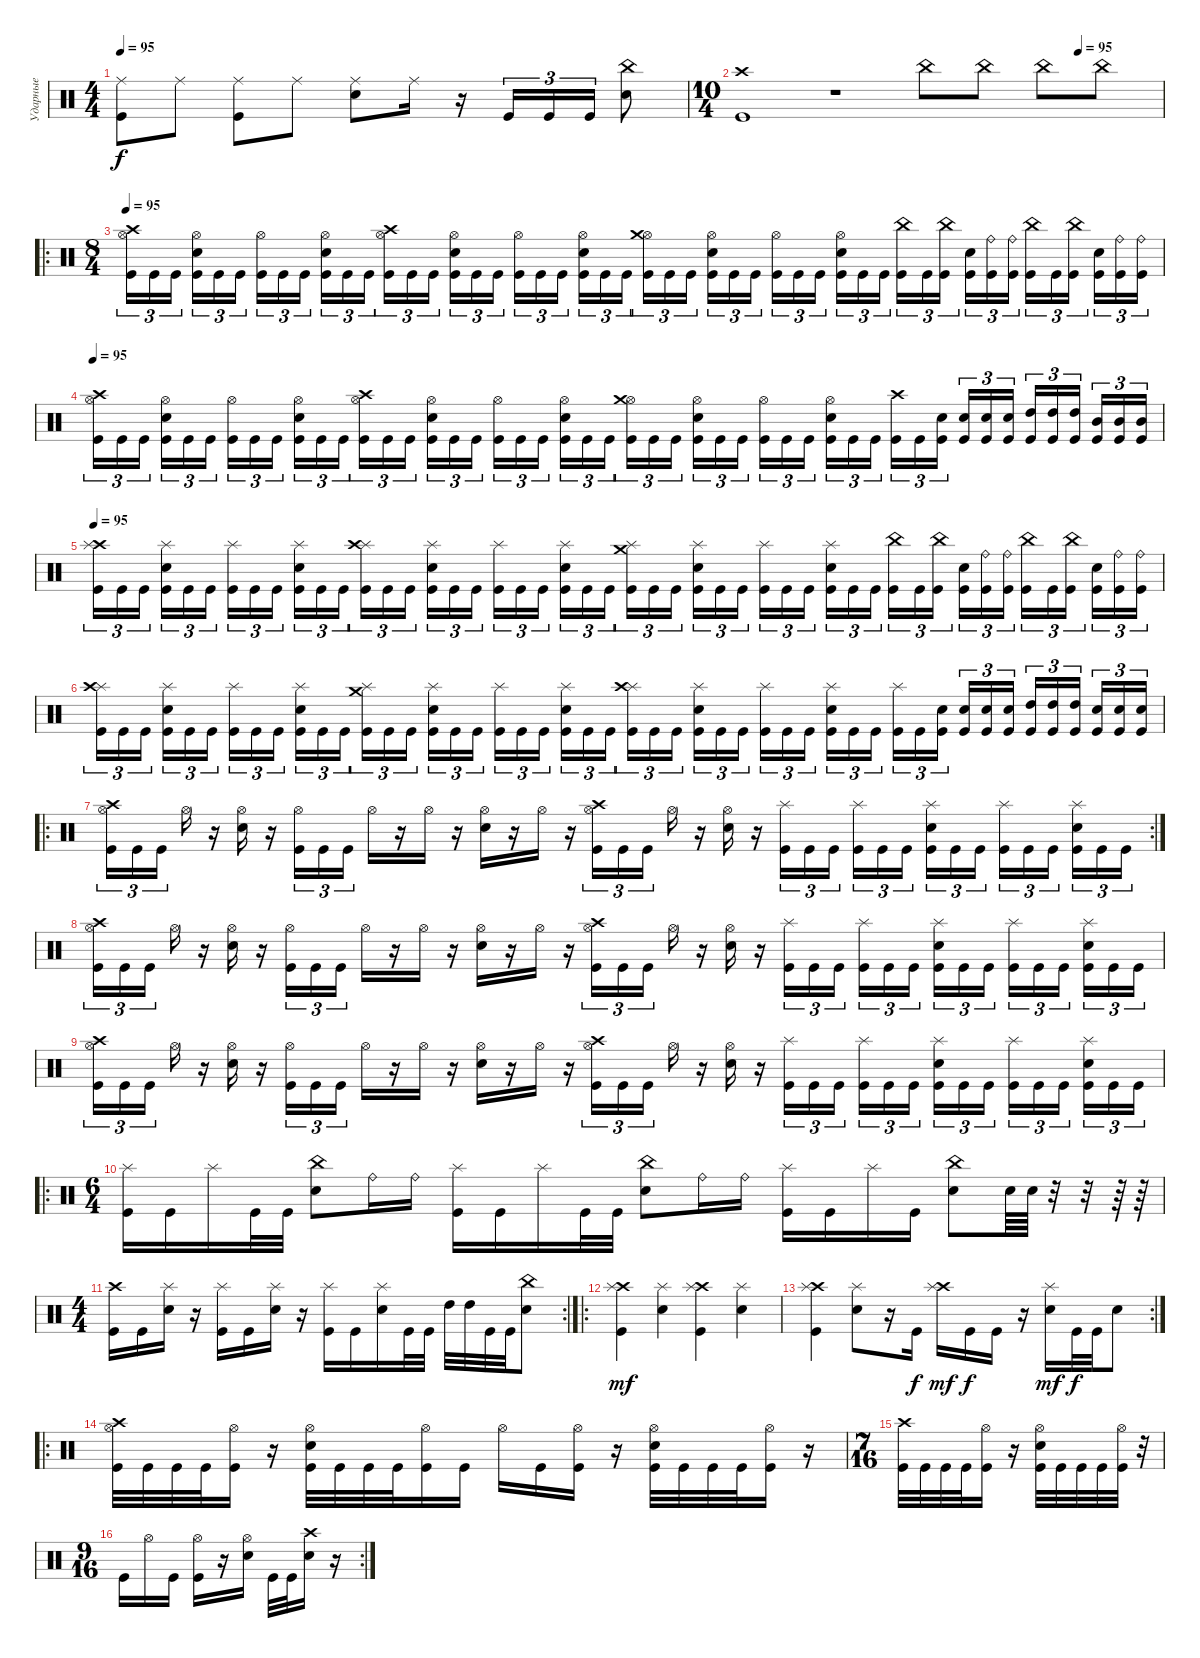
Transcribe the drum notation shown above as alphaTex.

\track ("Ударные" "Ударные") {instrument percussion}
\staff {score}
\articulation defaults
\ts (4 4)
\tempo 95
\clef neutral
\ks c
("Ride (middle)" "Kick (hit)").8{dy f} "Ride (middle)".8 ("Ride (middle)" "Kick (hit)").8 "Ride (middle)".8 ("Ride (middle)" "Electric Snare (hit)").8 "Ride (middle)".16 r.16 "Kick (hit)".16{tu (3 2)} "Kick (hit)".16{tu (3 2)} "Kick (hit)".16{tu (3 2)} ("China (hit)" "Electric Snare (hit)").8 |
\ts (10 4)
\tempo (95 0.8)
("Crash high (hit)" "Kick (hit)").1 r.1 "China (hit)".8 "China (hit)".8 "China (hit)".8 "China (hit)".8 |
\ro
\ts (8 4)
\tempo 100
\tempo 95
("Kick (hit)" "Crash high (hit)" "Hi-Hat (open)").16{tu (3 2)} "Kick (hit)".16{tu (3 2)} "Kick (hit)".16{tu (3 2)} ("Kick (hit)" "Electric Snare (hit)" "Hi-Hat (open)").16{tu (3 2)} "Kick (hit)".16{tu (3 2)} "Kick (hit)".16{tu (3 2)} ("Kick (hit)" "Hi-Hat (open)").16{tu (3 2)} "Kick (hit)".16{tu (3 2)} "Kick (hit)".16{tu (3 2)} ("Kick (hit)" "Electric Snare (hit)" "Hi-Hat (open)").16{tu (3 2)} "Kick (hit)".16{tu (3 2)} "Kick (hit)".16{tu (3 2)} ("Kick (hit)" "Hi-Hat (open)" "Crash high (hit)").16{tu (3 2)} "Kick (hit)".16{tu (3 2)} "Kick (hit)".16{tu (3 2)} ("Kick (hit)" "Electric Snare (hit)" "Hi-Hat (open)").16{tu (3 2)} "Kick (hit)".16{tu (3 2)} "Kick (hit)".16{tu (3 2)} ("Kick (hit)" "Hi-Hat (open)").16{tu (3 2)} "Kick (hit)".16{tu (3 2)} "Kick (hit)".16{tu (3 2)} ("Kick (hit)" "Electric Snare (hit)" "Hi-Hat (open)").16{tu (3 2)} "Kick (hit)".16{tu (3 2)} "Kick (hit)".16{tu (3 2)} ("Kick (hit)" "Hi-Hat (open)" "Crash medium (hit)").16{tu (3 2)} "Kick (hit)".16{tu (3 2)} "Kick (hit)".16{tu (3 2)} ("Kick (hit)" "Electric Snare (hit)" "Hi-Hat (open)").16{tu (3 2)} "Kick (hit)".16{tu (3 2)} "Kick (hit)".16{tu (3 2)} ("Kick (hit)" "Hi-Hat (open)").16{tu (3 2)} "Kick (hit)".16{tu (3 2)} "Kick (hit)".16{tu (3 2)} ("Kick (hit)" "Electric Snare (hit)" "Hi-Hat (open)").16{tu (3 2)} "Kick (hit)".16{tu (3 2)} "Kick (hit)".16{tu (3 2)} ("Kick (hit)" "China (hit)").16{tu (3 2)} "Kick (hit)".16{tu (3 2)} ("Kick (hit)" "China (hit)").16{tu (3 2)} ("Kick (hit)" "Electric Snare (hit)").16{tu (3 2)} ("Kick (hit)" "Ride (bell)").16{tu (3 2)} ("Kick (hit)" "Ride (bell)").16{tu (3 2)} ("Kick (hit)" "China (hit)").16{tu (3 2)} "Kick (hit)".16{tu (3 2)} ("Kick (hit)" "China (hit)").16{tu (3 2)} ("Kick (hit)" "Electric Snare (hit)").16{tu (3 2)} ("Kick (hit)" "Ride (bell)").16{tu (3 2)} ("Kick (hit)" "Ride (bell)").16{tu (3 2)} |
\tempo 100
\tempo 95
("Kick (hit)" "Crash high (hit)" "Hi-Hat (open)").16{tu (3 2)} "Kick (hit)".16{tu (3 2)} "Kick (hit)".16{tu (3 2)} ("Kick (hit)" "Electric Snare (hit)" "Hi-Hat (open)").16{tu (3 2)} "Kick (hit)".16{tu (3 2)} "Kick (hit)".16{tu (3 2)} ("Kick (hit)" "Hi-Hat (open)").16{tu (3 2)} "Kick (hit)".16{tu (3 2)} "Kick (hit)".16{tu (3 2)} ("Kick (hit)" "Electric Snare (hit)" "Hi-Hat (open)").16{tu (3 2)} "Kick (hit)".16{tu (3 2)} "Kick (hit)".16{tu (3 2)} ("Kick (hit)" "Hi-Hat (open)" "Crash high (hit)").16{tu (3 2)} "Kick (hit)".16{tu (3 2)} "Kick (hit)".16{tu (3 2)} ("Kick (hit)" "Electric Snare (hit)" "Hi-Hat (open)").16{tu (3 2)} "Kick (hit)".16{tu (3 2)} "Kick (hit)".16{tu (3 2)} ("Kick (hit)" "Hi-Hat (open)").16{tu (3 2)} "Kick (hit)".16{tu (3 2)} "Kick (hit)".16{tu (3 2)} ("Kick (hit)" "Electric Snare (hit)" "Hi-Hat (open)").16{tu (3 2)} "Kick (hit)".16{tu (3 2)} "Kick (hit)".16{tu (3 2)} ("Kick (hit)" "Hi-Hat (open)" "Crash medium (hit)").16{tu (3 2)} "Kick (hit)".16{tu (3 2)} "Kick (hit)".16{tu (3 2)} ("Kick (hit)" "Electric Snare (hit)" "Hi-Hat (open)").16{tu (3 2)} "Kick (hit)".16{tu (3 2)} "Kick (hit)".16{tu (3 2)} ("Kick (hit)" "Hi-Hat (open)").16{tu (3 2)} "Kick (hit)".16{tu (3 2)} "Kick (hit)".16{tu (3 2)} ("Kick (hit)" "Electric Snare (hit)" "Hi-Hat (open)").16{tu (3 2)} "Kick (hit)".16{tu (3 2)} "Kick (hit)".16{tu (3 2)} ("Kick (hit)" "Crash high (hit)").16{tu (3 2)} "Kick (hit)".16{tu (3 2)} ("Kick (hit)" "Electric Snare (hit)").16{tu (3 2)} ("Kick (hit)" "Electric Snare (hit)").16{tu (3 2)} ("Kick (hit)" "Electric Snare (hit)").16{tu (3 2)} ("Kick (hit)" "Electric Snare (hit)").16{tu (3 2)} ("Kick (hit)" "High Tom (hit)").16{tu (3 2)} ("Kick (hit)" "High Tom (hit)").16{tu (3 2)} ("Kick (hit)" "High Tom (hit)").16{tu (3 2)} ("Kick (hit)" "Mid Tom (hit)").16{tu (3 2)} ("Kick (hit)" "Mid Tom (hit)").16{tu (3 2)} ("Kick (hit)" "Mid Tom (hit)").16{tu (3 2)} |
\tempo 100
\tempo 95
("Kick (hit)" "Crash high (hit)" "Splash (hit)").16{tu (3 2)} "Kick (hit)".16{tu (3 2)} "Kick (hit)".16{tu (3 2)} ("Kick (hit)" "Electric Snare (hit)" "Splash (hit)").16{tu (3 2)} "Kick (hit)".16{tu (3 2)} "Kick (hit)".16{tu (3 2)} ("Kick (hit)" "Splash (hit)").16{tu (3 2)} "Kick (hit)".16{tu (3 2)} "Kick (hit)".16{tu (3 2)} ("Kick (hit)" "Electric Snare (hit)" "Splash (hit)").16{tu (3 2)} "Kick (hit)".16{tu (3 2)} "Kick (hit)".16{tu (3 2)} ("Kick (hit)" "Splash (hit)" "Crash high (hit)").16{tu (3 2)} "Kick (hit)".16{tu (3 2)} "Kick (hit)".16{tu (3 2)} ("Kick (hit)" "Electric Snare (hit)" "Splash (hit)").16{tu (3 2)} "Kick (hit)".16{tu (3 2)} "Kick (hit)".16{tu (3 2)} ("Kick (hit)" "Splash (hit)").16{tu (3 2)} "Kick (hit)".16{tu (3 2)} "Kick (hit)".16{tu (3 2)} ("Kick (hit)" "Electric Snare (hit)" "Splash (hit)").16{tu (3 2)} "Kick (hit)".16{tu (3 2)} "Kick (hit)".16{tu (3 2)} ("Kick (hit)" "Splash (hit)" "Crash medium (hit)").16{tu (3 2)} "Kick (hit)".16{tu (3 2)} "Kick (hit)".16{tu (3 2)} ("Kick (hit)" "Electric Snare (hit)" "Splash (hit)").16{tu (3 2)} "Kick (hit)".16{tu (3 2)} "Kick (hit)".16{tu (3 2)} ("Kick (hit)" "Splash (hit)").16{tu (3 2)} "Kick (hit)".16{tu (3 2)} "Kick (hit)".16{tu (3 2)} ("Kick (hit)" "Electric Snare (hit)" "Splash (hit)").16{tu (3 2)} "Kick (hit)".16{tu (3 2)} "Kick (hit)".16{tu (3 2)} ("Kick (hit)" "China (hit)").16{tu (3 2)} "Kick (hit)".16{tu (3 2)} ("Kick (hit)" "China (hit)").16{tu (3 2)} ("Kick (hit)" "Electric Snare (hit)").16{tu (3 2)} ("Kick (hit)" "Ride (bell)").16{tu (3 2)} ("Kick (hit)" "Ride (bell)").16{tu (3 2)} ("Kick (hit)" "China (hit)").16{tu (3 2)} "Kick (hit)".16{tu (3 2)} ("Kick (hit)" "China (hit)").16{tu (3 2)} ("Kick (hit)" "Electric Snare (hit)").16{tu (3 2)} ("Kick (hit)" "Ride (bell)").16{tu (3 2)} ("Kick (hit)" "Ride (bell)").16{tu (3 2)} |
("Kick (hit)" "Splash (hit)" "Crash high (hit)").16{tu (3 2)} "Kick (hit)".16{tu (3 2)} "Kick (hit)".16{tu (3 2)} ("Kick (hit)" "Electric Snare (hit)" "Splash (hit)").16{tu (3 2)} "Kick (hit)".16{tu (3 2)} "Kick (hit)".16{tu (3 2)} ("Kick (hit)" "Splash (hit)").16{tu (3 2)} "Kick (hit)".16{tu (3 2)} "Kick (hit)".16{tu (3 2)} ("Kick (hit)" "Electric Snare (hit)" "Splash (hit)").16{tu (3 2)} "Kick (hit)".16{tu (3 2)} "Kick (hit)".16{tu (3 2)} ("Kick (hit)" "Splash (hit)" "Crash medium (hit)").16{tu (3 2)} "Kick (hit)".16{tu (3 2)} "Kick (hit)".16{tu (3 2)} ("Kick (hit)" "Electric Snare (hit)" "Splash (hit)").16{tu (3 2)} "Kick (hit)".16{tu (3 2)} "Kick (hit)".16{tu (3 2)} ("Kick (hit)" "Splash (hit)").16{tu (3 2)} "Kick (hit)".16{tu (3 2)} "Kick (hit)".16{tu (3 2)} ("Kick (hit)" "Electric Snare (hit)" "Splash (hit)").16{tu (3 2)} "Kick (hit)".16{tu (3 2)} "Kick (hit)".16{tu (3 2)} ("Kick (hit)" "Splash (hit)" "Crash high (hit)").16{tu (3 2)} "Kick (hit)".16{tu (3 2)} "Kick (hit)".16{tu (3 2)} ("Kick (hit)" "Electric Snare (hit)" "Splash (hit)").16{tu (3 2)} "Kick (hit)".16{tu (3 2)} "Kick (hit)".16{tu (3 2)} ("Kick (hit)" "Splash (hit)").16{tu (3 2)} "Kick (hit)".16{tu (3 2)} "Kick (hit)".16{tu (3 2)} ("Kick (hit)" "Electric Snare (hit)" "Splash (hit)").16{tu (3 2)} "Kick (hit)".16{tu (3 2)} "Kick (hit)".16{tu (3 2)} ("Kick (hit)" "Splash (hit)").16{tu (3 2)} "Kick (hit)".16{tu (3 2)} ("Kick (hit)" "Electric Snare (hit)").16{tu (3 2)} ("Kick (hit)" "Electric Snare (hit)").16{tu (3 2)} ("Kick (hit)" "Electric Snare (hit)").16{tu (3 2)} ("Kick (hit)" "Electric Snare (hit)").16{tu (3 2)} ("Kick (hit)" "High Tom (hit)").16{tu (3 2)} ("Kick (hit)" "High Tom (hit)").16{tu (3 2)} ("Kick (hit)" "High Tom (hit)").16{tu (3 2)} ("Kick (hit)" "Electric Snare (hit)").16{tu (3 2)} ("Kick (hit)" "Electric Snare (hit)").16{tu (3 2)} ("Kick (hit)" "Electric Snare (hit)").16{tu (3 2)} |
\ro
\rc 2
("Hi-Hat (open)" "Crash high (hit)" "Kick (hit)").16{tu (3 2)} "Kick (hit)".16{tu (3 2)} "Kick (hit)".16{tu (3 2)} "Hi-Hat (open)".16 r.16 ("Hi-Hat (open)" "Electric Snare (hit)").16 r.16 ("Hi-Hat (open)" "Kick (hit)").16{tu (3 2)} "Kick (hit)".16{tu (3 2)} "Kick (hit)".16{tu (3 2)} "Hi-Hat (open)".16 r.16 "Hi-Hat (open)".16 r.16 ("Hi-Hat (open)" "Electric Snare (hit)").16 r.16 "Hi-Hat (open)".16 r.16 ("Hi-Hat (open)" "Crash high (hit)" "Kick (hit)").16{tu (3 2)} "Kick (hit)".16{tu (3 2)} "Kick (hit)".16{tu (3 2)} "Hi-Hat (open)".16 r.16 ("Hi-Hat (open)" "Electric Snare (hit)").16 r.16 ("Splash (hit)" "Kick (hit)").16{tu (3 2)} "Kick (hit)".16{tu (3 2)} "Kick (hit)".16{tu (3 2)} ("Splash (hit)" "Kick (hit)").16{tu (3 2)} "Kick (hit)".16{tu (3 2)} "Kick (hit)".16{tu (3 2)} ("Splash (hit)" "Electric Snare (hit)" "Kick (hit)").16{tu (3 2)} "Kick (hit)".16{tu (3 2)} "Kick (hit)".16{tu (3 2)} ("Splash (hit)" "Kick (hit)").16{tu (3 2)} "Kick (hit)".16{tu (3 2)} "Kick (hit)".16{tu (3 2)} ("Splash (hit)" "Electric Snare (hit)" "Kick (hit)").16{tu (3 2)} "Kick (hit)".16{tu (3 2)} "Kick (hit)".16{tu (3 2)} |
("Hi-Hat (open)" "Crash high (hit)" "Kick (hit)").16{tu (3 2)} "Kick (hit)".16{tu (3 2)} "Kick (hit)".16{tu (3 2)} "Hi-Hat (open)".16 r.16 ("Hi-Hat (open)" "Electric Snare (hit)").16 r.16 ("Hi-Hat (open)" "Kick (hit)").16{tu (3 2)} "Kick (hit)".16{tu (3 2)} "Kick (hit)".16{tu (3 2)} "Hi-Hat (open)".16 r.16 "Hi-Hat (open)".16 r.16 ("Hi-Hat (open)" "Electric Snare (hit)").16 r.16 "Hi-Hat (open)".16 r.16 ("Hi-Hat (open)" "Crash high (hit)" "Kick (hit)").16{tu (3 2)} "Kick (hit)".16{tu (3 2)} "Kick (hit)".16{tu (3 2)} "Hi-Hat (open)".16 r.16 ("Hi-Hat (open)" "Electric Snare (hit)").16 r.16 ("Splash (hit)" "Kick (hit)").16{tu (3 2)} "Kick (hit)".16{tu (3 2)} "Kick (hit)".16{tu (3 2)} ("Splash (hit)" "Kick (hit)").16{tu (3 2)} "Kick (hit)".16{tu (3 2)} "Kick (hit)".16{tu (3 2)} ("Splash (hit)" "Electric Snare (hit)" "Kick (hit)").16{tu (3 2)} "Kick (hit)".16{tu (3 2)} "Kick (hit)".16{tu (3 2)} ("Splash (hit)" "Kick (hit)").16{tu (3 2)} "Kick (hit)".16{tu (3 2)} "Kick (hit)".16{tu (3 2)} ("Splash (hit)" "Electric Snare (hit)" "Kick (hit)").16{tu (3 2)} "Kick (hit)".16{tu (3 2)} "Kick (hit)".16{tu (3 2)} |
("Hi-Hat (open)" "Crash high (hit)" "Kick (hit)").16{tu (3 2)} "Kick (hit)".16{tu (3 2)} "Kick (hit)".16{tu (3 2)} "Hi-Hat (open)".16 r.16 ("Hi-Hat (open)" "Electric Snare (hit)").16 r.16 ("Hi-Hat (open)" "Kick (hit)").16{tu (3 2)} "Kick (hit)".16{tu (3 2)} "Kick (hit)".16{tu (3 2)} "Hi-Hat (open)".16 r.16 "Hi-Hat (open)".16 r.16 ("Hi-Hat (open)" "Electric Snare (hit)").16 r.16 "Hi-Hat (open)".16 r.16 ("Hi-Hat (open)" "Crash high (hit)" "Kick (hit)").16{tu (3 2)} "Kick (hit)".16{tu (3 2)} "Kick (hit)".16{tu (3 2)} "Hi-Hat (open)".16 r.16 ("Hi-Hat (open)" "Electric Snare (hit)").16 r.16 ("Splash (hit)" "Kick (hit)").16{tu (3 2)} "Kick (hit)".16{tu (3 2)} "Kick (hit)".16{tu (3 2)} ("Splash (hit)" "Kick (hit)").16{tu (3 2)} "Kick (hit)".16{tu (3 2)} "Kick (hit)".16{tu (3 2)} ("Splash (hit)" "Electric Snare (hit)" "Kick (hit)").16{tu (3 2)} "Kick (hit)".16{tu (3 2)} "Kick (hit)".16{tu (3 2)} ("Splash (hit)" "Kick (hit)").16{tu (3 2)} "Kick (hit)".16{tu (3 2)} "Kick (hit)".16{tu (3 2)} ("Splash (hit)" "Electric Snare (hit)" "Kick (hit)").16{tu (3 2)} "Kick (hit)".16{tu (3 2)} "Kick (hit)".16{tu (3 2)} |
\ro
\ts (6 4)
("Splash (hit)" "Kick (hit)").16 "Kick (hit)".16 "Splash (hit)".16 "Kick (hit)".32 "Kick (hit)".32 ("China (hit)" "Electric Snare (hit)").8 "Ride (bell)".16 "Ride (bell)".16 ("Splash (hit)" "Kick (hit)").16 "Kick (hit)".16 "Splash (hit)".16 "Kick (hit)".32 "Kick (hit)".32 ("China (hit)" "Electric Snare (hit)").8 "Ride (bell)".16 "Ride (bell)".16 ("Splash (hit)" "Kick (hit)").16 "Kick (hit)".16 "Splash (hit)".16 "Kick (hit)".16 ("China (hit)" "Electric Snare (hit)").8 "Electric Snare (hit)".64 "Electric Snare (hit)".64 r.32 r.32 r.64 r.64 |
\rc 2
\ts (4 4)
("Crash high (hit)" "Kick (hit)").16 "Kick (hit)".16 ("Splash (hit)" "Electric Snare (hit)").16 r.16 ("Splash (hit)" "Kick (hit)").16 "Kick (hit)".16 ("Splash (hit)" "Electric Snare (hit)").16 r.16 ("Splash (hit)" "Kick (hit)").16 "Kick (hit)".16 ("Splash (hit)" "Electric Snare (hit)").16 "Kick (hit)".32 "Kick (hit)".32 "High Tom (hit)".32 "High Tom (hit)".32 "Kick (hit)".32 "Kick (hit)".32 ("China (hit)" "Electric Snare (hit)").8 |
\ro
("Crash high (hit)" "Splash (hit)" "Kick (hit)").4{dy mf} ("Splash (hit)" "Electric Snare (hit)").4 ("Crash high (hit)" "Splash (hit)" "Kick (hit)").4 ("Splash (hit)" "Electric Snare (hit)").4 |
\rc 2
("Crash high (hit)" "Splash (hit)" "Kick (hit)").4 ("Splash (hit)" "Electric Snare (hit)").8 r.16 "Kick (hit)".16{dy f} ("Crash high (hit)" "Splash (hit)").16{dy mf} "Kick (hit)".16{dy f} "Kick (hit)".16 r.16 ("Splash (hit)" "Electric Snare (hit)").16{dy mf} "Kick (hit)".32{dy f} "Kick (hit)".32 "Electric Snare (hit)".8 |
\ro
("Hi-Hat (open)" "Crash high (hit)" "Kick (hit)").32 "Kick (hit)".32 "Kick (hit)".32 "Kick (hit)".32 ("Hi-Hat (open)" "Kick (hit)").16 r.16 ("Hi-Hat (open)" "Electric Snare (hit)" "Kick (hit)").32 "Kick (hit)".32 "Kick (hit)".32 "Kick (hit)".32 ("Hi-Hat (open)" "Kick (hit)").16 "Kick (hit)".16 "Hi-Hat (open)".16 "Kick (hit)".16 ("Hi-Hat (open)" "Kick (hit)").16 r.16 ("Hi-Hat (open)" "Electric Snare (hit)" "Kick (hit)").32 "Kick (hit)".32 "Kick (hit)".32 "Kick (hit)".32 ("Hi-Hat (open)" "Kick (hit)").16 r.16 |
\ts (7 16)
("Crash high (hit)" "Kick (hit)").32 "Kick (hit)".32 "Kick (hit)".32 "Kick (hit)".32 ("Hi-Hat (open)" "Kick (hit)").16 r.16 ("Hi-Hat (open)" "Electric Snare (hit)" "Kick (hit)").32 "Kick (hit)".32 "Kick (hit)".32 "Kick (hit)".32 ("Hi-Hat (open)" "Kick (hit)").32 r.32 |
\rc 2
\ts (9 16)
"Kick (hit)".16 "Hi-Hat (open)".16 "Kick (hit)".16 ("Hi-Hat (open)" "Kick (hit)").16 r.16 ("Hi-Hat (open)" "Electric Snare (hit)").16 "Kick (hit)".32 "Kick (hit)".32 ("Electric Snare (hit)" "Crash high (hit)").16 r.16
